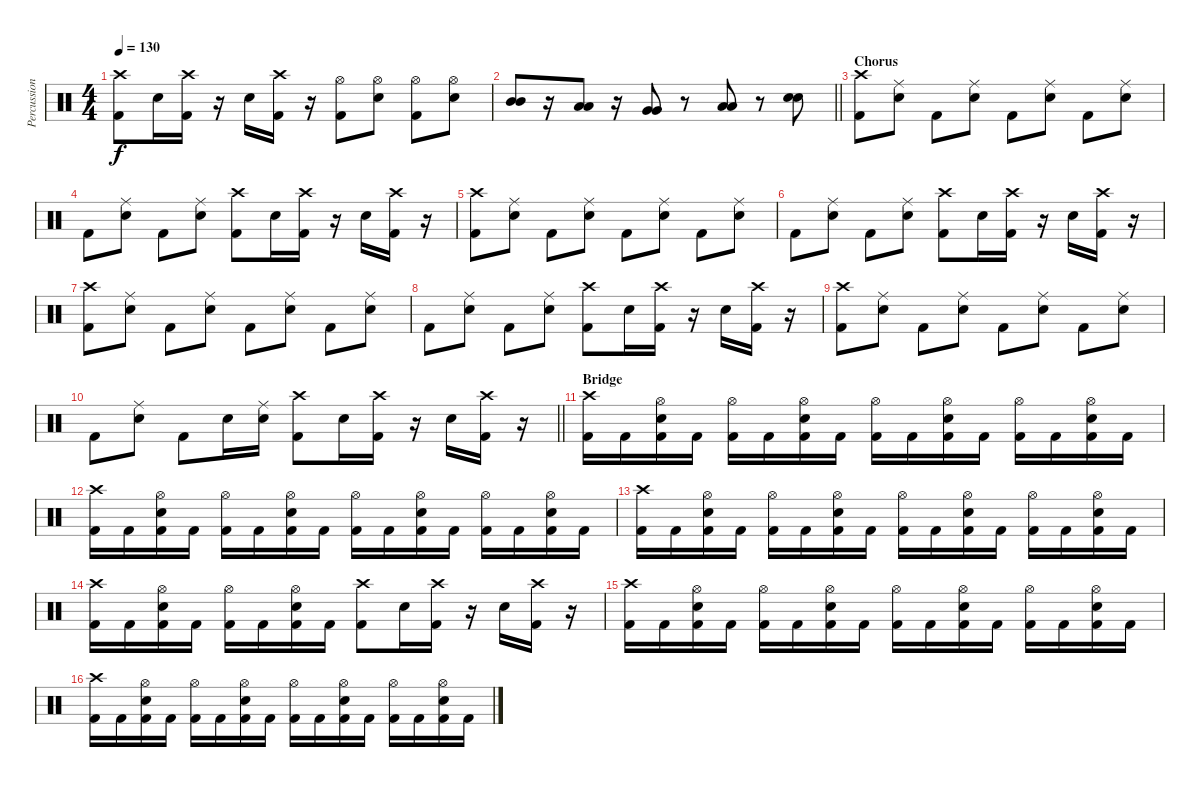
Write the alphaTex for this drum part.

\track ("Percussion" "Percussion") {instrument percussion}
\staff {score}
\articulation defaults
\ts (4 4)
\tempo 130
\clef neutral
\ks c
("Crash high (hit)" "Kick (hit) 2").8{dy f} "Snare (hit) 2".16 ("Crash high (hit)" "Kick (hit) 2").16 r.16 "Snare (hit) 2".16 ("Crash high (hit)" "Kick (hit) 2").16 r.16 ("Hi-Hat (open)" "Kick (hit) 2").8 ("Hi-Hat (open)" "Snare (hit) 2").8 ("Hi-Hat (open)" "Kick (hit) 2").8 ("Hi-Hat (open)" "Snare (hit) 2").8 |
\barLineRight lightlight
("Mid Tom (hit)" "Mid Tom (hit)").8 r.16 ("Low Tom (hit)" "Low Tom (hit)").8 r.16 ("Very Low Tom (hit)" "Very Low Tom (hit)").8 r.8 ("Low Floor Tom (hit)" "Low Floor Tom (hit)").8 r.8 ("Snare (hit) 2" "Snare (hit) 2").8 |
\section ("" "Chorus")
("Crash high (hit)" "Kick (hit) 2").8 ("Ride (middle)" "Snare (hit) 2").8 "Kick (hit) 2".8 ("Ride (middle)" "Snare (hit) 2").8 "Kick (hit) 2".8 ("Ride (middle)" "Snare (hit) 2").8 "Kick (hit) 2".8 ("Ride (middle)" "Snare (hit) 2").8 |
"Kick (hit) 2".8 ("Ride (middle)" "Snare (hit) 2").8 "Kick (hit) 2".8 ("Ride (middle)" "Snare (hit) 2").8 ("Crash high (hit)" "Kick (hit) 2").8 "Snare (hit) 2".16 ("Crash high (hit)" "Kick (hit) 2").16 r.16 "Snare (hit) 2".16 ("Crash high (hit)" "Kick (hit) 2").16 r.16 |
("Crash high (hit)" "Kick (hit) 2").8 ("Ride (middle)" "Snare (hit) 2").8 "Kick (hit) 2".8 ("Ride (middle)" "Snare (hit) 2").8 "Kick (hit) 2".8 ("Ride (middle)" "Snare (hit) 2").8 "Kick (hit) 2".8 ("Ride (middle)" "Snare (hit) 2").8 |
"Kick (hit) 2".8 ("Ride (middle)" "Snare (hit) 2").8 "Kick (hit) 2".8 ("Ride (middle)" "Snare (hit) 2").8 ("Crash high (hit)" "Kick (hit) 2").8 "Snare (hit) 2".16 ("Crash high (hit)" "Kick (hit) 2").16 r.16 "Snare (hit) 2".16 ("Crash high (hit)" "Kick (hit) 2").16 r.16 |
("Crash high (hit)" "Kick (hit) 2").8 ("Ride (middle)" "Snare (hit) 2").8 "Kick (hit) 2".8 ("Ride (middle)" "Snare (hit) 2").8 "Kick (hit) 2".8 ("Ride (middle)" "Snare (hit) 2").8 "Kick (hit) 2".8 ("Ride (middle)" "Snare (hit) 2").8 |
"Kick (hit) 2".8 ("Ride (middle)" "Snare (hit) 2").8 "Kick (hit) 2".8 ("Ride (middle)" "Snare (hit) 2").8 ("Crash high (hit)" "Kick (hit) 2").8 "Snare (hit) 2".16 ("Crash high (hit)" "Kick (hit) 2").16 r.16 "Snare (hit) 2".16 ("Crash high (hit)" "Kick (hit) 2").16 r.16 |
("Crash high (hit)" "Kick (hit) 2").8 ("Ride (middle)" "Snare (hit) 2").8 "Kick (hit) 2".8 ("Ride (middle)" "Snare (hit) 2").8 "Kick (hit) 2".8 ("Ride (middle)" "Snare (hit) 2").8 "Kick (hit) 2".8 ("Ride (middle)" "Snare (hit) 2").8 |
\barLineRight lightlight "Kick (hit) 2".8
("Ride (middle)" "Snare (hit) 2").8 "Kick (hit) 2".8 "Snare (hit) 2".16 ("Ride (middle)" "Snare (hit) 2").16 ("Crash high (hit)" "Kick (hit) 2").8 "Snare (hit) 2".16 ("Crash high (hit)" "Kick (hit) 2").16 r.16 "Snare (hit) 2".16 ("Crash high (hit)" "Kick (hit) 2").16 r.16 |
\section ("" "Bridge")
("Crash high (hit)" "Kick (hit) 2").16 "Kick (hit) 2".16 ("Hi-Hat (open)" "Snare (hit) 2" "Kick (hit) 2").16 "Kick (hit) 2".16 ("Hi-Hat (open)" "Kick (hit) 2").16 "Kick (hit) 2".16 ("Hi-Hat (open)" "Snare (hit) 2" "Kick (hit) 2").16 "Kick (hit) 2".16 ("Hi-Hat (open)" "Kick (hit) 2").16 "Kick (hit) 2".16 ("Hi-Hat (open)" "Snare (hit) 2" "Kick (hit) 2").16 "Kick (hit) 2".16 ("Hi-Hat (open)" "Kick (hit) 2").16 "Kick (hit) 2".16 ("Hi-Hat (open)" "Snare (hit) 2" "Kick (hit) 2").16 "Kick (hit) 2".16 |
("Crash high (hit)" "Kick (hit) 2").16 "Kick (hit) 2".16 ("Hi-Hat (open)" "Snare (hit) 2" "Kick (hit) 2").16 "Kick (hit) 2".16 ("Hi-Hat (open)" "Kick (hit) 2").16 "Kick (hit) 2".16 ("Hi-Hat (open)" "Snare (hit) 2" "Kick (hit) 2").16 "Kick (hit) 2".16 ("Hi-Hat (open)" "Kick (hit) 2").16 "Kick (hit) 2".16 ("Hi-Hat (open)" "Snare (hit) 2" "Kick (hit) 2").16 "Kick (hit) 2".16 ("Hi-Hat (open)" "Kick (hit) 2").16 "Kick (hit) 2".16 ("Hi-Hat (open)" "Snare (hit) 2" "Kick (hit) 2").16 "Kick (hit) 2".16 |
("Crash high (hit)" "Kick (hit) 2").16 "Kick (hit) 2".16 ("Hi-Hat (open)" "Snare (hit) 2" "Kick (hit) 2").16 "Kick (hit) 2".16 ("Hi-Hat (open)" "Kick (hit) 2").16 "Kick (hit) 2".16 ("Hi-Hat (open)" "Snare (hit) 2" "Kick (hit) 2").16 "Kick (hit) 2".16 ("Hi-Hat (open)" "Kick (hit) 2").16 "Kick (hit) 2".16 ("Hi-Hat (open)" "Snare (hit) 2" "Kick (hit) 2").16 "Kick (hit) 2".16 ("Hi-Hat (open)" "Kick (hit) 2").16 "Kick (hit) 2".16 ("Hi-Hat (open)" "Snare (hit) 2" "Kick (hit) 2").16 "Kick (hit) 2".16 |
("Crash high (hit)" "Kick (hit) 2").16 "Kick (hit) 2".16 ("Hi-Hat (open)" "Snare (hit) 2" "Kick (hit) 2").16 "Kick (hit) 2".16 ("Hi-Hat (open)" "Kick (hit) 2").16 "Kick (hit) 2".16 ("Hi-Hat (open)" "Snare (hit) 2" "Kick (hit) 2").16 "Kick (hit) 2".16 ("Crash high (hit)" "Kick (hit) 2").8 "Snare (hit) 2".16 ("Crash high (hit)" "Kick (hit) 2").16 r.16 "Snare (hit) 2".16 ("Crash high (hit)" "Kick (hit) 2").16 r.16 |
("Crash high (hit)" "Kick (hit) 2").16 "Kick (hit) 2".16 ("Hi-Hat (open)" "Snare (hit) 2" "Kick (hit) 2").16 "Kick (hit) 2".16 ("Hi-Hat (open)" "Kick (hit) 2").16 "Kick (hit) 2".16 ("Hi-Hat (open)" "Snare (hit) 2" "Kick (hit) 2").16 "Kick (hit) 2".16 ("Hi-Hat (open)" "Kick (hit) 2").16 "Kick (hit) 2".16 ("Hi-Hat (open)" "Snare (hit) 2" "Kick (hit) 2").16 "Kick (hit) 2".16 ("Hi-Hat (open)" "Kick (hit) 2").16 "Kick (hit) 2".16 ("Hi-Hat (open)" "Snare (hit) 2" "Kick (hit) 2").16 "Kick (hit) 2".16 |
("Crash high (hit)" "Kick (hit) 2").16 "Kick (hit) 2".16 ("Hi-Hat (open)" "Snare (hit) 2" "Kick (hit) 2").16 "Kick (hit) 2".16 ("Hi-Hat (open)" "Kick (hit) 2").16 "Kick (hit) 2".16 ("Hi-Hat (open)" "Snare (hit) 2" "Kick (hit) 2").16 "Kick (hit) 2".16 ("Hi-Hat (open)" "Kick (hit) 2").16 "Kick (hit) 2".16 ("Hi-Hat (open)" "Snare (hit) 2" "Kick (hit) 2").16 "Kick (hit) 2".16 ("Hi-Hat (open)" "Kick (hit) 2").16 "Kick (hit) 2".16 ("Hi-Hat (open)" "Snare (hit) 2" "Kick (hit) 2").16 "Kick (hit) 2".16
